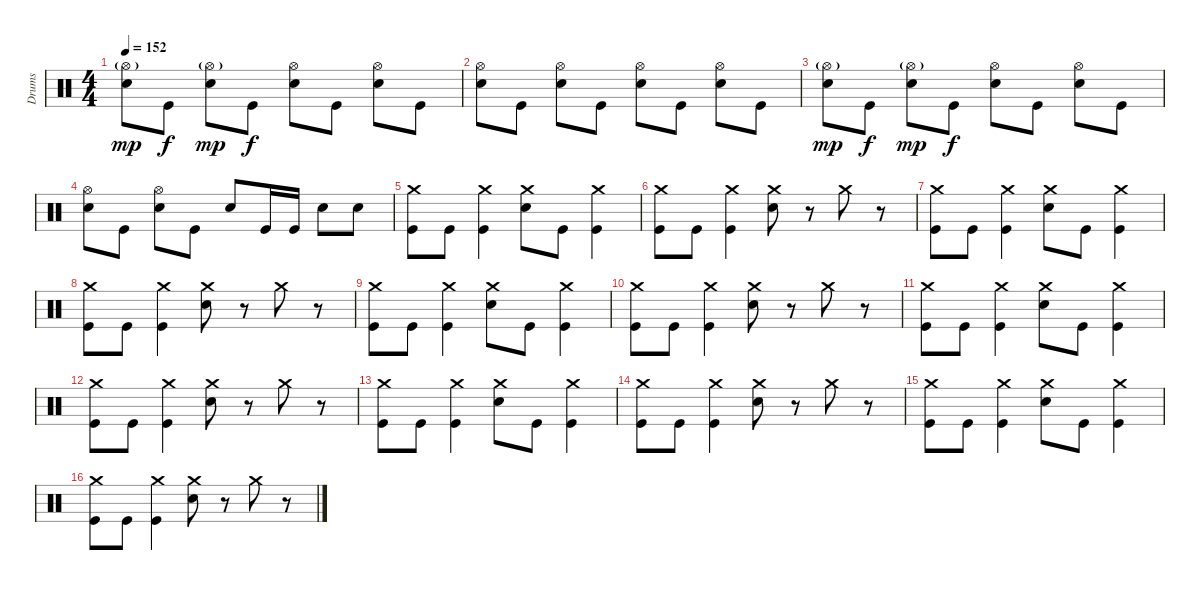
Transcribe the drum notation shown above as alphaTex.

\track ("Drums" "Drums") {instrument percussion}
\staff {score}
\articulation defaults
\ts (4 4)
\tempo 152
\clef neutral
\ks c
("Hi-Hat (open)"{g} "Electric Snare (hit)").8{dy mp} "Kick (hit)".8{dy f} ("Hi-Hat (open)"{g} "Electric Snare (hit)").8{dy mp} "Kick (hit)".8{dy f} ("Hi-Hat (open)" "Electric Snare (hit)").8 "Kick (hit)".8 ("Hi-Hat (open)" "Electric Snare (hit)").8 "Kick (hit)".8 |
("Hi-Hat (open)" "Electric Snare (hit)").8 "Kick (hit)".8 ("Hi-Hat (open)" "Electric Snare (hit)").8 "Kick (hit)".8 ("Hi-Hat (open)" "Electric Snare (hit)").8 "Kick (hit)".8 ("Hi-Hat (open)" "Electric Snare (hit)").8 "Kick (hit)".8 |
("Hi-Hat (open)"{g} "Electric Snare (hit)").8{dy mp} "Kick (hit)".8{dy f} ("Hi-Hat (open)"{g} "Electric Snare (hit)").8{dy mp} "Kick (hit)".8{dy f} ("Hi-Hat (open)" "Electric Snare (hit)").8 "Kick (hit)".8 ("Hi-Hat (open)" "Electric Snare (hit)").8 "Kick (hit)".8 |
("Hi-Hat (open)" "Electric Snare (hit)").8 "Kick (hit)".8 ("Hi-Hat (open)" "Electric Snare (hit)").8 "Kick (hit)".8 "Electric Snare (hit)".8 "Kick (hit)".16 "Kick (hit)".16 "Electric Snare (hit)".8 "Electric Snare (hit)".8 |
("Crash medium (hit)" "Kick (hit)").8 "Kick (hit)".8 ("Crash medium (hit)" "Kick (hit)").4 ("Crash medium (hit)" "Electric Snare (hit)").8 "Kick (hit)".8 ("Crash medium (hit)" "Kick (hit)").4 |
("Crash medium (hit)" "Kick (hit)").8 "Kick (hit)".8 ("Crash medium (hit)" "Kick (hit)").4 ("Crash medium (hit)" "Electric Snare (hit)").8 r.8 "Crash medium (hit)".8 r.8 |
("Crash medium (hit)" "Kick (hit)").8 "Kick (hit)".8 ("Crash medium (hit)" "Kick (hit)").4 ("Crash medium (hit)" "Electric Snare (hit)").8 "Kick (hit)".8 ("Crash medium (hit)" "Kick (hit)").4 |
("Crash medium (hit)" "Kick (hit)").8 "Kick (hit)".8 ("Crash medium (hit)" "Kick (hit)").4 ("Crash medium (hit)" "Electric Snare (hit)").8 r.8 "Crash medium (hit)".8 r.8 |
("Crash medium (hit)" "Kick (hit)").8 "Kick (hit)".8 ("Crash medium (hit)" "Kick (hit)").4 ("Crash medium (hit)" "Electric Snare (hit)").8 "Kick (hit)".8 ("Crash medium (hit)" "Kick (hit)").4 |
("Crash medium (hit)" "Kick (hit)").8 "Kick (hit)".8 ("Crash medium (hit)" "Kick (hit)").4 ("Crash medium (hit)" "Electric Snare (hit)").8 r.8 "Crash medium (hit)".8 r.8 |
("Crash medium (hit)" "Kick (hit)").8 "Kick (hit)".8 ("Crash medium (hit)" "Kick (hit)").4 ("Crash medium (hit)" "Electric Snare (hit)").8 "Kick (hit)".8 ("Crash medium (hit)" "Kick (hit)").4 |
("Crash medium (hit)" "Kick (hit)").8 "Kick (hit)".8 ("Crash medium (hit)" "Kick (hit)").4 ("Crash medium (hit)" "Electric Snare (hit)").8 r.8 "Crash medium (hit)".8 r.8 |
("Crash medium (hit)" "Kick (hit)").8 "Kick (hit)".8 ("Crash medium (hit)" "Kick (hit)").4 ("Crash medium (hit)" "Electric Snare (hit)").8 "Kick (hit)".8 ("Crash medium (hit)" "Kick (hit)").4 |
("Crash medium (hit)" "Kick (hit)").8 "Kick (hit)".8 ("Crash medium (hit)" "Kick (hit)").4 ("Crash medium (hit)" "Electric Snare (hit)").8 r.8 "Crash medium (hit)".8 r.8 |
("Crash medium (hit)" "Kick (hit)").8 "Kick (hit)".8 ("Crash medium (hit)" "Kick (hit)").4 ("Crash medium (hit)" "Electric Snare (hit)").8 "Kick (hit)".8 ("Crash medium (hit)" "Kick (hit)").4 |
("Crash medium (hit)" "Kick (hit)").8 "Kick (hit)".8 ("Crash medium (hit)" "Kick (hit)").4 ("Crash medium (hit)" "Electric Snare (hit)").8 r.8 "Crash medium (hit)".8 r.8
